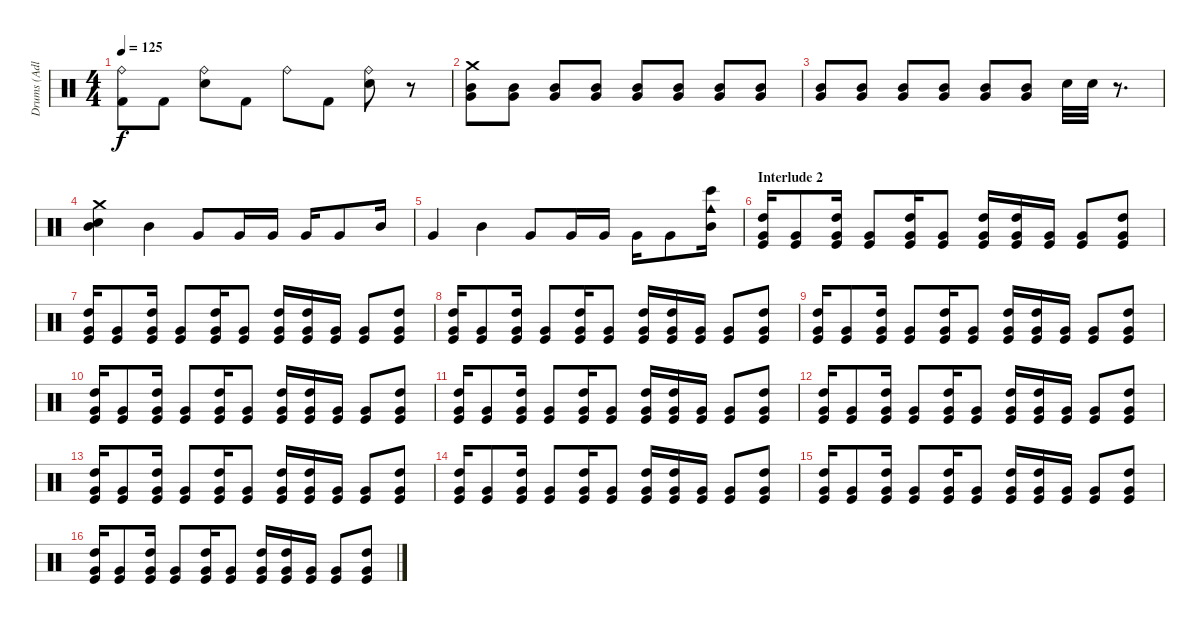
\track ("Drums (Adler)" "Drums (Adl") {instrument percussion}
\staff {score}
\articulation defaults
\ts (4 4)
\tempo 125
\clef neutral
\ks c
("Kick (hit) 2" "Ride (bell)").8{dy f} "Kick (hit) 2".8 ("Electric Snare (hit)" "Ride (bell)").8 "Kick (hit) 2".8 "Ride (bell)".8 "Kick (hit) 2".8 ("Electric Snare (hit)" "Ride (bell)").8 r.8 |
("Crash medium (hit)" "Very Low Tom (hit)" "Mid Tom (hit)").8 ("Very Low Tom (hit)" "Mid Tom (hit)").8 ("Very Low Tom (hit)" "Mid Tom (hit)").8 ("Very Low Tom (hit)" "Mid Tom (hit)").8 ("Very Low Tom (hit)" "Mid Tom (hit)").8 ("Very Low Tom (hit)" "Mid Tom (hit)").8 ("Very Low Tom (hit)" "Mid Tom (hit)").8 ("Very Low Tom (hit)" "Mid Tom (hit)").8 |
("Very Low Tom (hit)" "Mid Tom (hit)").8 ("Very Low Tom (hit)" "Mid Tom (hit)").8 ("Very Low Tom (hit)" "Mid Tom (hit)").8 ("Very Low Tom (hit)" "Mid Tom (hit)").8 ("Very Low Tom (hit)" "Mid Tom (hit)").8 ("Very Low Tom (hit)" "Mid Tom (hit)").8 "Electric Snare (hit)".32 "Electric Snare (hit)".32 r.8{d} |
("Crash medium (hit)" "Electric Snare (hit)" "Mid Tom (hit)").4 "Mid Tom (hit)".4 "Very Low Tom (hit)".8 "Very Low Tom (hit)".16 "Very Low Tom (hit)".16 "Very Low Tom (hit)".16 "Very Low Tom (hit)".8 "Mid Tom (hit)".16 |
"Very Low Tom (hit)".4 "Mid Tom (hit)".4 "Very Low Tom (hit)".8 "Very Low Tom (hit)".16 "Very Low Tom (hit)".16 "Very Low Tom (hit)".16 "Very Low Tom (hit)".8 ("Cowbell medium (hit)" "Bongo High (hit)" "Mid Tom (hit)").16 |
\section ("" "Interlude 2")
("Kick (hit)" "Very Low Tom (hit)" "High Tom (hit)").16 ("Kick (hit)" "Very Low Tom (hit)").8 ("Kick (hit)" "Very Low Tom (hit)" "High Tom (hit)").16 ("Kick (hit)" "Very Low Tom (hit)").8 ("Kick (hit)" "Very Low Tom (hit)" "High Tom (hit)").16 ("Kick (hit)" "Very Low Tom (hit)").8 ("Kick (hit)" "Very Low Tom (hit)" "High Tom (hit)").16 ("Kick (hit)" "Very Low Tom (hit)" "High Tom (hit)").16 ("Kick (hit)" "Very Low Tom (hit)").16 ("Kick (hit)" "Very Low Tom (hit)").8 ("Kick (hit)" "Very Low Tom (hit)" "High Tom (hit)").8 |
("Kick (hit)" "Very Low Tom (hit)" "High Tom (hit)").16 ("Kick (hit)" "Very Low Tom (hit)").8 ("Kick (hit)" "Very Low Tom (hit)" "High Tom (hit)").16 ("Kick (hit)" "Very Low Tom (hit)").8 ("Kick (hit)" "Very Low Tom (hit)" "High Tom (hit)").16 ("Kick (hit)" "Very Low Tom (hit)").8 ("Kick (hit)" "Very Low Tom (hit)" "High Tom (hit)").16 ("Kick (hit)" "Very Low Tom (hit)" "High Tom (hit)").16 ("Kick (hit)" "Very Low Tom (hit)").16 ("Kick (hit)" "Very Low Tom (hit)").8 ("Kick (hit)" "Very Low Tom (hit)" "High Tom (hit)").8 |
("Kick (hit)" "Very Low Tom (hit)" "High Tom (hit)").16 ("Kick (hit)" "Very Low Tom (hit)").8 ("Kick (hit)" "Very Low Tom (hit)" "High Tom (hit)").16 ("Kick (hit)" "Very Low Tom (hit)").8 ("Kick (hit)" "Very Low Tom (hit)" "High Tom (hit)").16 ("Kick (hit)" "Very Low Tom (hit)").8 ("Kick (hit)" "Very Low Tom (hit)" "High Tom (hit)").16 ("Kick (hit)" "Very Low Tom (hit)" "High Tom (hit)").16 ("Kick (hit)" "Very Low Tom (hit)").16 ("Kick (hit)" "Very Low Tom (hit)").8 ("Kick (hit)" "Very Low Tom (hit)" "High Tom (hit)").8 |
("Kick (hit)" "Very Low Tom (hit)" "High Tom (hit)").16 ("Kick (hit)" "Very Low Tom (hit)").8 ("Kick (hit)" "Very Low Tom (hit)" "High Tom (hit)").16 ("Kick (hit)" "Very Low Tom (hit)").8 ("Kick (hit)" "Very Low Tom (hit)" "High Tom (hit)").16 ("Kick (hit)" "Very Low Tom (hit)").8 ("Kick (hit)" "Very Low Tom (hit)" "High Tom (hit)").16 ("Kick (hit)" "Very Low Tom (hit)" "High Tom (hit)").16 ("Kick (hit)" "Very Low Tom (hit)").16 ("Kick (hit)" "Very Low Tom (hit)").8 ("Kick (hit)" "Very Low Tom (hit)" "High Tom (hit)").8 |
("Kick (hit)" "Very Low Tom (hit)" "High Tom (hit)").16 ("Kick (hit)" "Very Low Tom (hit)").8 ("Kick (hit)" "Very Low Tom (hit)" "High Tom (hit)").16 ("Kick (hit)" "Very Low Tom (hit)").8 ("Kick (hit)" "Very Low Tom (hit)" "High Tom (hit)").16 ("Kick (hit)" "Very Low Tom (hit)").8 ("Kick (hit)" "Very Low Tom (hit)" "High Tom (hit)").16 ("Kick (hit)" "Very Low Tom (hit)" "High Tom (hit)").16 ("Kick (hit)" "Very Low Tom (hit)").16 ("Kick (hit)" "Very Low Tom (hit)").8 ("Kick (hit)" "Very Low Tom (hit)" "High Tom (hit)").8 |
("Kick (hit)" "Very Low Tom (hit)" "High Tom (hit)").16 ("Kick (hit)" "Very Low Tom (hit)").8 ("Kick (hit)" "Very Low Tom (hit)" "High Tom (hit)").16 ("Kick (hit)" "Very Low Tom (hit)").8 ("Kick (hit)" "Very Low Tom (hit)" "High Tom (hit)").16 ("Kick (hit)" "Very Low Tom (hit)").8 ("Kick (hit)" "Very Low Tom (hit)" "High Tom (hit)").16 ("Kick (hit)" "Very Low Tom (hit)" "High Tom (hit)").16 ("Kick (hit)" "Very Low Tom (hit)").16 ("Kick (hit)" "Very Low Tom (hit)").8 ("Kick (hit)" "Very Low Tom (hit)" "High Tom (hit)").8 |
("Kick (hit)" "Very Low Tom (hit)" "High Tom (hit)").16 ("Kick (hit)" "Very Low Tom (hit)").8 ("Kick (hit)" "Very Low Tom (hit)" "High Tom (hit)").16 ("Kick (hit)" "Very Low Tom (hit)").8 ("Kick (hit)" "Very Low Tom (hit)" "High Tom (hit)").16 ("Kick (hit)" "Very Low Tom (hit)").8 ("Kick (hit)" "Very Low Tom (hit)" "High Tom (hit)").16 ("Kick (hit)" "Very Low Tom (hit)" "High Tom (hit)").16 ("Kick (hit)" "Very Low Tom (hit)").16 ("Kick (hit)" "Very Low Tom (hit)").8 ("Kick (hit)" "Very Low Tom (hit)" "High Tom (hit)").8 |
("Kick (hit)" "Very Low Tom (hit)" "High Tom (hit)").16 ("Kick (hit)" "Very Low Tom (hit)").8 ("Kick (hit)" "Very Low Tom (hit)" "High Tom (hit)").16 ("Kick (hit)" "Very Low Tom (hit)").8 ("Kick (hit)" "Very Low Tom (hit)" "High Tom (hit)").16 ("Kick (hit)" "Very Low Tom (hit)").8 ("Kick (hit)" "Very Low Tom (hit)" "High Tom (hit)").16 ("Kick (hit)" "Very Low Tom (hit)" "High Tom (hit)").16 ("Kick (hit)" "Very Low Tom (hit)").16 ("Kick (hit)" "Very Low Tom (hit)").8 ("Kick (hit)" "Very Low Tom (hit)" "High Tom (hit)").8 |
("Kick (hit)" "Very Low Tom (hit)" "High Tom (hit)").16 ("Kick (hit)" "Very Low Tom (hit)").8 ("Kick (hit)" "Very Low Tom (hit)" "High Tom (hit)").16 ("Kick (hit)" "Very Low Tom (hit)").8 ("Kick (hit)" "Very Low Tom (hit)" "High Tom (hit)").16 ("Kick (hit)" "Very Low Tom (hit)").8 ("Kick (hit)" "Very Low Tom (hit)" "High Tom (hit)").16 ("Kick (hit)" "Very Low Tom (hit)" "High Tom (hit)").16 ("Kick (hit)" "Very Low Tom (hit)").16 ("Kick (hit)" "Very Low Tom (hit)").8 ("Kick (hit)" "Very Low Tom (hit)" "High Tom (hit)").8 |
("Kick (hit)" "Very Low Tom (hit)" "High Tom (hit)").16 ("Kick (hit)" "Very Low Tom (hit)").8 ("Kick (hit)" "Very Low Tom (hit)" "High Tom (hit)").16 ("Kick (hit)" "Very Low Tom (hit)").8 ("Kick (hit)" "Very Low Tom (hit)" "High Tom (hit)").16 ("Kick (hit)" "Very Low Tom (hit)").8 ("Kick (hit)" "Very Low Tom (hit)" "High Tom (hit)").16 ("Kick (hit)" "Very Low Tom (hit)" "High Tom (hit)").16 ("Kick (hit)" "Very Low Tom (hit)").16 ("Kick (hit)" "Very Low Tom (hit)").8 ("Kick (hit)" "Very Low Tom (hit)" "High Tom (hit)").8 |
("Kick (hit)" "Very Low Tom (hit)" "High Tom (hit)").16 ("Kick (hit)" "Very Low Tom (hit)").8 ("Kick (hit)" "Very Low Tom (hit)" "High Tom (hit)").16 ("Kick (hit)" "Very Low Tom (hit)").8 ("Kick (hit)" "Very Low Tom (hit)" "High Tom (hit)").16 ("Kick (hit)" "Very Low Tom (hit)").8 ("Kick (hit)" "Very Low Tom (hit)" "High Tom (hit)").16 ("Kick (hit)" "Very Low Tom (hit)" "High Tom (hit)").16 ("Kick (hit)" "Very Low Tom (hit)").16 ("Kick (hit)" "Very Low Tom (hit)").8 ("Kick (hit)" "Very Low Tom (hit)" "High Tom (hit)").8
